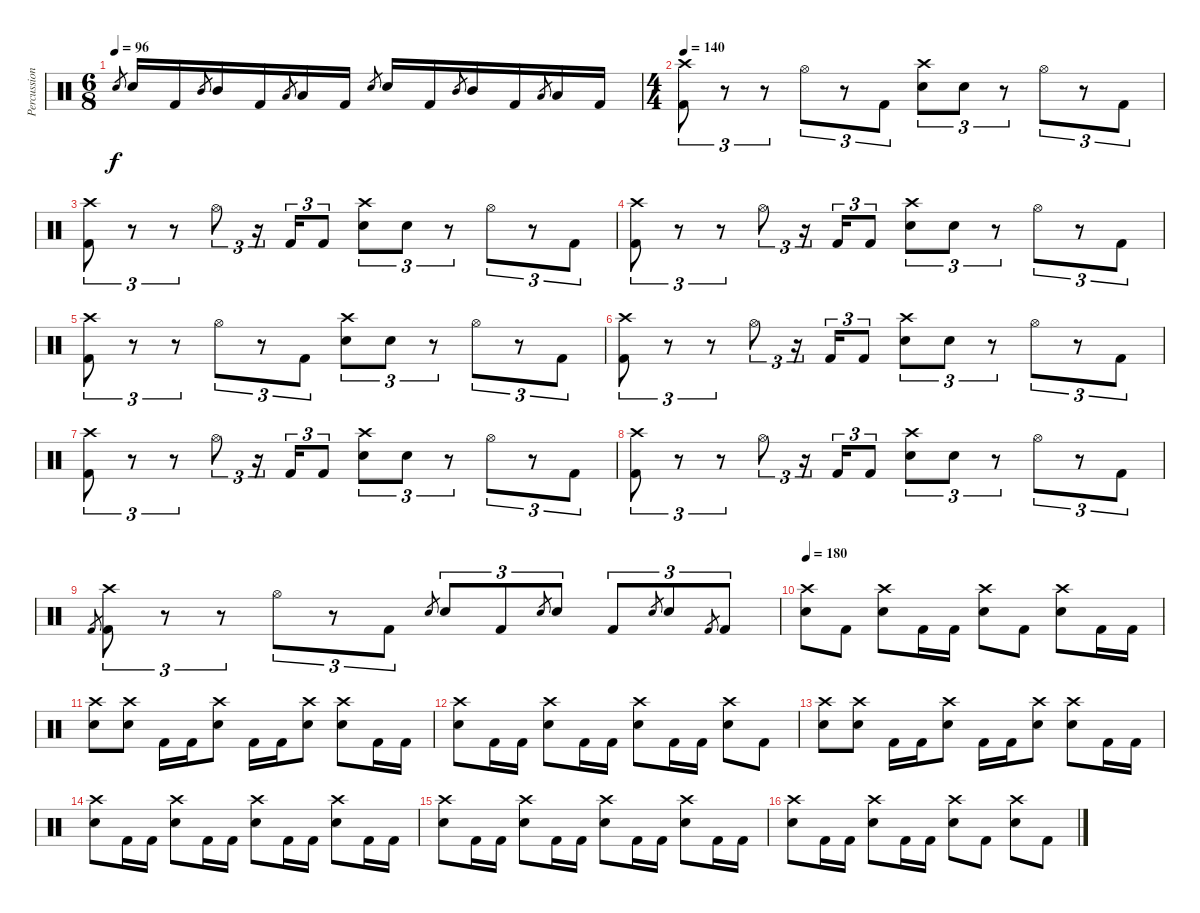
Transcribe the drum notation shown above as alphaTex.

\track ("Percussion" "Percussion") {instrument percussion}
\staff {score}
\articulation defaults
\ts (6 8)
\tempo 96
\clef neutral
\ks c "Electric Snare (hit)".8{gr dy f} "Electric Snare (hit)".16 "Kick (hit) 2".16 "Mid Tom (hit)".8{gr} "Mid Tom (hit)".16 "Kick (hit) 2".16 "Low Tom (hit)".8{gr} "Low Tom (hit)".16 "Kick (hit) 2".16 "Electric Snare (hit)".8{gr} "Electric Snare (hit)".16 "Kick (hit) 2".16 "Mid Tom (hit)".8{gr} "Mid Tom (hit)".16 "Kick (hit) 2".16 "Low Tom (hit)".8{gr} "Low Tom (hit)".16 "Kick (hit) 2".16
|
\ts (4 4)
\tempo 140
("Crash high (hit)" "Kick (hit) 2").8{tu (3 2)} r.8{tu (3 2)} r.8{tu (3 2)} "Hi-Hat (open)".8{tu (3 2)} r.8{tu (3 2)} "Kick (hit) 2".8{tu (3 2)} ("Crash high (hit)" "Electric Snare (hit)").8{tu (3 2)} "Electric Snare (hit)".8{tu (3 2)} r.8{tu (3 2)} "Hi-Hat (open)".8{tu (3 2)} r.8{tu (3 2)} "Kick (hit) 2".8{tu (3 2)} |
("Crash high (hit)" "Kick (hit) 2").8{tu (3 2)} r.8{tu (3 2)} r.8{tu (3 2)} "Hi-Hat (open)".8{tu (3 2)} r.16{tu (3 2)} "Kick (hit) 2".16{tu (3 2)} "Kick (hit) 2".8{tu (3 2)} ("Crash high (hit)" "Electric Snare (hit)").8{tu (3 2)} "Electric Snare (hit)".8{tu (3 2)} r.8{tu (3 2)} "Hi-Hat (open)".8{tu (3 2)} r.8{tu (3 2)} "Kick (hit) 2".8{tu (3 2)} |
("Crash high (hit)" "Kick (hit) 2").8{tu (3 2)} r.8{tu (3 2)} r.8{tu (3 2)} "Hi-Hat (open)".8{tu (3 2)} r.16{tu (3 2)} "Kick (hit) 2".16{tu (3 2)} "Kick (hit) 2".8{tu (3 2)} ("Crash high (hit)" "Electric Snare (hit)").8{tu (3 2)} "Electric Snare (hit)".8{tu (3 2)} r.8{tu (3 2)} "Hi-Hat (open)".8{tu (3 2)} r.8{tu (3 2)} "Kick (hit) 2".8{tu (3 2)} |
("Crash high (hit)" "Kick (hit) 2").8{tu (3 2)} r.8{tu (3 2)} r.8{tu (3 2)} "Hi-Hat (open)".8{tu (3 2)} r.8{tu (3 2)} "Kick (hit) 2".8{tu (3 2)} ("Crash high (hit)" "Electric Snare (hit)").8{tu (3 2)} "Electric Snare (hit)".8{tu (3 2)} r.8{tu (3 2)} "Hi-Hat (open)".8{tu (3 2)} r.8{tu (3 2)} "Kick (hit) 2".8{tu (3 2)} |
("Crash high (hit)" "Kick (hit) 2").8{tu (3 2)} r.8{tu (3 2)} r.8{tu (3 2)} "Hi-Hat (open)".8{tu (3 2)} r.16{tu (3 2)} "Kick (hit) 2".16{tu (3 2)} "Kick (hit) 2".8{tu (3 2)} ("Crash high (hit)" "Electric Snare (hit)").8{tu (3 2)} "Electric Snare (hit)".8{tu (3 2)} r.8{tu (3 2)} "Hi-Hat (open)".8{tu (3 2)} r.8{tu (3 2)} "Kick (hit) 2".8{tu (3 2)} |
("Crash high (hit)" "Kick (hit) 2").8{tu (3 2)} r.8{tu (3 2)} r.8{tu (3 2)} "Hi-Hat (open)".8{tu (3 2)} r.16{tu (3 2)} "Kick (hit) 2".16{tu (3 2)} "Kick (hit) 2".8{tu (3 2)} ("Crash high (hit)" "Electric Snare (hit)").8{tu (3 2)} "Electric Snare (hit)".8{tu (3 2)} r.8{tu (3 2)} "Hi-Hat (open)".8{tu (3 2)} r.8{tu (3 2)} "Kick (hit) 2".8{tu (3 2)} |
("Crash high (hit)" "Kick (hit) 2").8{tu (3 2)} r.8{tu (3 2)} r.8{tu (3 2)} "Hi-Hat (open)".8{tu (3 2)} r.16{tu (3 2)} "Kick (hit) 2".16{tu (3 2)} "Kick (hit) 2".8{tu (3 2)} ("Crash high (hit)" "Electric Snare (hit)").8{tu (3 2)} "Electric Snare (hit)".8{tu (3 2)} r.8{tu (3 2)} "Hi-Hat (open)".8{tu (3 2)} r.8{tu (3 2)} "Kick (hit) 2".8{tu (3 2)} |
"Kick (hit) 2".8{gr} ("Crash high (hit)" "Kick (hit) 2").8{tu (3 2)} r.8{tu (3 2)} r.8{tu (3 2)} "Hi-Hat (open)".8{tu (3 2)} r.8{tu (3 2)} "Kick (hit) 2".8{tu (3 2)} "Electric Snare (hit)".8{gr} "Electric Snare (hit)".8{tu (3 2)} "Kick (hit) 2".8{tu (3 2)} "Electric Snare (hit)".8{gr} "Electric Snare (hit)".8{tu (3 2)} "Kick (hit) 2".8{tu (3 2)} "Electric Snare (hit)".8{gr} "Electric Snare (hit)".8{tu (3 2)} "Kick (hit) 2".8{gr} "Kick (hit) 2".8{tu (3 2)} |
\tempo 180
("Crash high (hit)" "Electric Snare (hit)").8 "Kick (hit) 2".8 ("Crash high (hit)" "Electric Snare (hit)").8 "Kick (hit) 2".16 "Kick (hit) 2".16 ("Crash high (hit)" "Electric Snare (hit)").8 "Kick (hit) 2".8 ("Crash high (hit)" "Electric Snare (hit)").8 "Kick (hit) 2".16 "Kick (hit) 2".16 |
("Crash high (hit)" "Electric Snare (hit)").8 ("Crash high (hit)" "Electric Snare (hit)").8 "Kick (hit) 2".16 "Kick (hit) 2".16 ("Crash high (hit)" "Electric Snare (hit)").8 "Kick (hit) 2".16 "Kick (hit) 2".16 ("Crash high (hit)" "Electric Snare (hit)").8 ("Crash high (hit)" "Electric Snare (hit)").8 "Kick (hit) 2".16 "Kick (hit) 2".16 |
("Crash high (hit)" "Electric Snare (hit)").8 "Kick (hit) 2".16 "Kick (hit) 2".16 ("Crash high (hit)" "Electric Snare (hit)").8 "Kick (hit) 2".16 "Kick (hit) 2".16 ("Crash high (hit)" "Electric Snare (hit)").8 "Kick (hit) 2".16 "Kick (hit) 2".16 ("Crash high (hit)" "Electric Snare (hit)").8 "Kick (hit) 2".8 |
("Crash high (hit)" "Electric Snare (hit)").8 ("Crash high (hit)" "Electric Snare (hit)").8 "Kick (hit) 2".16 "Kick (hit) 2".16 ("Crash high (hit)" "Electric Snare (hit)").8 "Kick (hit) 2".16 "Kick (hit) 2".16 ("Crash high (hit)" "Electric Snare (hit)").8 ("Crash high (hit)" "Electric Snare (hit)").8 "Kick (hit) 2".16 "Kick (hit) 2".16 |
("Crash high (hit)" "Electric Snare (hit)").8 "Kick (hit) 2".16 "Kick (hit) 2".16 ("Crash high (hit)" "Electric Snare (hit)").8 "Kick (hit) 2".16 "Kick (hit) 2".16 ("Crash high (hit)" "Electric Snare (hit)").8 "Kick (hit) 2".16 "Kick (hit) 2".16 ("Crash high (hit)" "Electric Snare (hit)").8 "Kick (hit) 2".16 "Kick (hit) 2".16 |
("Crash high (hit)" "Electric Snare (hit)").8 "Kick (hit) 2".16 "Kick (hit) 2".16 ("Crash high (hit)" "Electric Snare (hit)").8 "Kick (hit) 2".16 "Kick (hit) 2".16 ("Crash high (hit)" "Electric Snare (hit)").8 "Kick (hit) 2".16 "Kick (hit) 2".16 ("Crash high (hit)" "Electric Snare (hit)").8 "Kick (hit) 2".16 "Kick (hit) 2".16 |
("Crash high (hit)" "Electric Snare (hit)").8 "Kick (hit) 2".16 "Kick (hit) 2".16 ("Crash high (hit)" "Electric Snare (hit)").8 "Kick (hit) 2".16 "Kick (hit) 2".16 ("Crash high (hit)" "Electric Snare (hit)").8 "Kick (hit) 2".8 ("Crash high (hit)" "Electric Snare (hit)").8 "Kick (hit) 2".8
